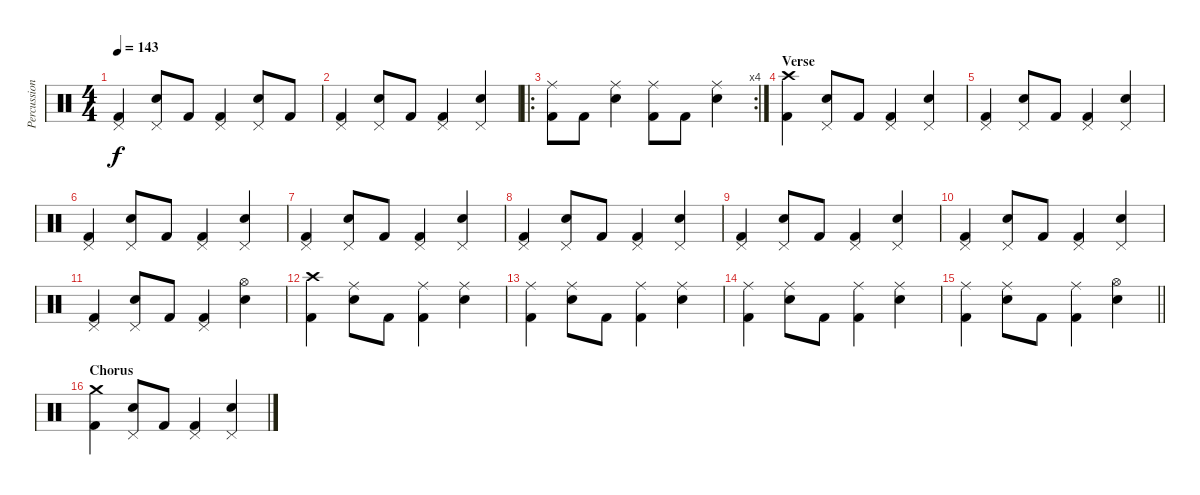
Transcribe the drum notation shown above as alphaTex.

\track ("Percussion" "Percussion") {instrument percussion}
\staff {score}
\articulation defaults
\ts (4 4)
\tempo 143
\clef neutral
\ks c
("Pedal Hi-Hat (hit)" "Kick (hit) 2").4{dy f} ("Pedal Hi-Hat (hit)" "Electric Snare (hit)").8 "Kick (hit) 2".8 ("Pedal Hi-Hat (hit)" "Kick (hit) 2").4 ("Pedal Hi-Hat (hit)" "Electric Snare (hit)").8 "Kick (hit) 2".8 |
("Pedal Hi-Hat (hit)" "Kick (hit) 2").4 ("Pedal Hi-Hat (hit)" "Electric Snare (hit)").8 "Kick (hit) 2".8 ("Pedal Hi-Hat (hit)" "Kick (hit) 2").4 ("Pedal Hi-Hat (hit)" "Electric Snare (hit)").4 |
\ro
\rc 4
("Ride (middle)" "Kick (hit) 2").8 "Kick (hit) 2".8 ("Ride (middle)" "Electric Snare (hit)").4 ("Ride (middle)" "Kick (hit) 2").8 "Kick (hit) 2".8 ("Ride (middle)" "Electric Snare (hit)").4 |
\section ("" "Verse")
("Crash high (hit)" "Kick (hit) 2").4 ("Pedal Hi-Hat (hit)" "Electric Snare (hit)").8 "Kick (hit) 2".8 ("Pedal Hi-Hat (hit)" "Kick (hit) 2").4 ("Pedal Hi-Hat (hit)" "Electric Snare (hit)").4 |
("Pedal Hi-Hat (hit)" "Kick (hit) 2").4 ("Pedal Hi-Hat (hit)" "Electric Snare (hit)").8 "Kick (hit) 2".8 ("Pedal Hi-Hat (hit)" "Kick (hit) 2").4 ("Pedal Hi-Hat (hit)" "Electric Snare (hit)").4 |
("Pedal Hi-Hat (hit)" "Kick (hit) 2").4 ("Pedal Hi-Hat (hit)" "Electric Snare (hit)").8 "Kick (hit) 2".8 ("Pedal Hi-Hat (hit)" "Kick (hit) 2").4 ("Pedal Hi-Hat (hit)" "Electric Snare (hit)").4 |
("Pedal Hi-Hat (hit)" "Kick (hit) 2").4 ("Pedal Hi-Hat (hit)" "Electric Snare (hit)").8 "Kick (hit) 2".8 ("Pedal Hi-Hat (hit)" "Kick (hit) 2").4 ("Pedal Hi-Hat (hit)" "Electric Snare (hit)").4 |
("Pedal Hi-Hat (hit)" "Kick (hit) 2").4 ("Pedal Hi-Hat (hit)" "Electric Snare (hit)").8 "Kick (hit) 2".8 ("Pedal Hi-Hat (hit)" "Kick (hit) 2").4 ("Pedal Hi-Hat (hit)" "Electric Snare (hit)").4 |
("Pedal Hi-Hat (hit)" "Kick (hit) 2").4 ("Pedal Hi-Hat (hit)" "Electric Snare (hit)").8 "Kick (hit) 2".8 ("Pedal Hi-Hat (hit)" "Kick (hit) 2").4 ("Pedal Hi-Hat (hit)" "Electric Snare (hit)").4 |
("Pedal Hi-Hat (hit)" "Kick (hit) 2").4 ("Pedal Hi-Hat (hit)" "Electric Snare (hit)").8 "Kick (hit) 2".8 ("Pedal Hi-Hat (hit)" "Kick (hit) 2").4 ("Pedal Hi-Hat (hit)" "Electric Snare (hit)").4 |
("Pedal Hi-Hat (hit)" "Kick (hit) 2").4 ("Pedal Hi-Hat (hit)" "Electric Snare (hit)").8 "Kick (hit) 2".8 ("Pedal Hi-Hat (hit)" "Kick (hit) 2").4 ("Hi-Hat (open)" "Electric Snare (hit)").4 |
("Crash high (hit)" "Kick (hit) 2").4 ("Ride (middle)" "Electric Snare (hit)").8 "Kick (hit) 2".8 ("Ride (middle)" "Kick (hit) 2").4 ("Ride (middle)" "Electric Snare (hit)").4 |
("Ride (middle)" "Kick (hit) 2").4 ("Ride (middle)" "Electric Snare (hit)").8 "Kick (hit) 2".8 ("Ride (middle)" "Kick (hit) 2").4 ("Ride (middle)" "Electric Snare (hit)").4 |
("Ride (middle)" "Kick (hit) 2").4 ("Ride (middle)" "Electric Snare (hit)").8 "Kick (hit) 2".8 ("Ride (middle)" "Kick (hit) 2").4 ("Ride (middle)" "Electric Snare (hit)").4 |
\barLineRight lightlight
("Ride (middle)" "Kick (hit) 2").4 ("Ride (middle)" "Electric Snare (hit)").8 "Kick (hit) 2".8 ("Ride (middle)" "Kick (hit) 2").4 ("Hi-Hat (open)" "Electric Snare (hit)").4 |
\section ("" "Chorus")
("Crash medium (hit)" "Kick (hit) 2").4 ("Pedal Hi-Hat (hit)" "Electric Snare (hit)").8 "Kick (hit) 2".8 ("Pedal Hi-Hat (hit)" "Kick (hit) 2").4 ("Pedal Hi-Hat (hit)" "Electric Snare (hit)").4
